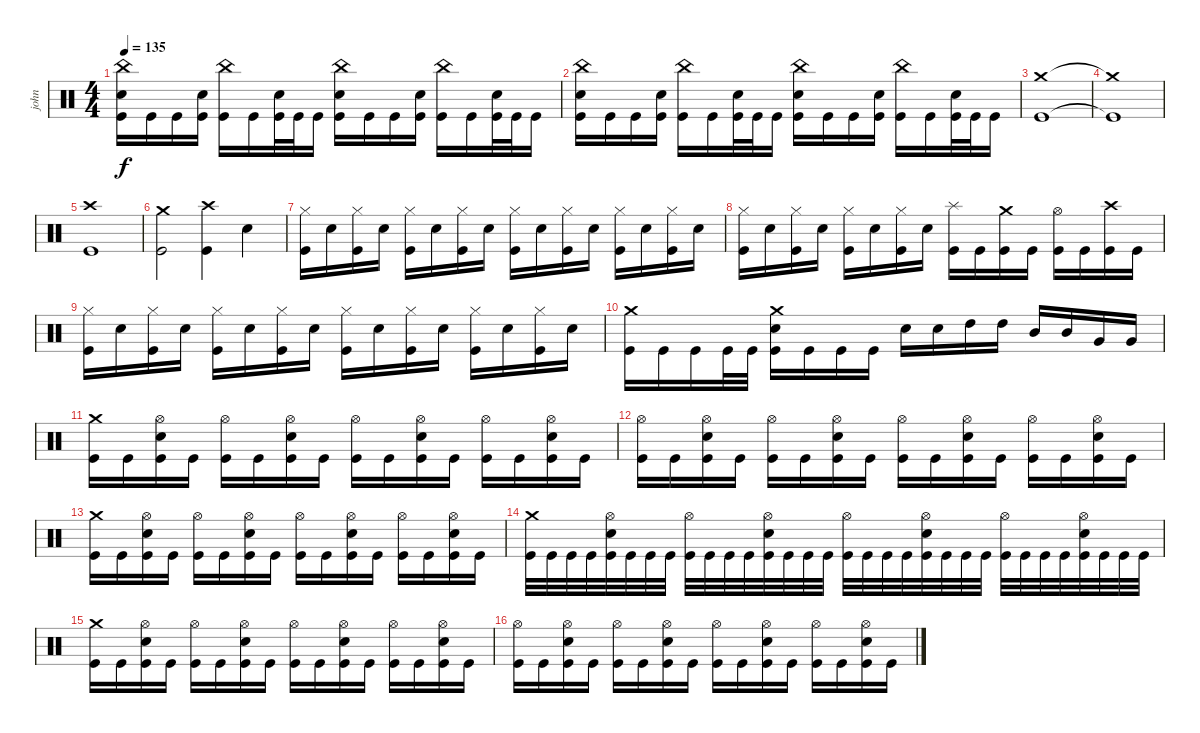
\track ("john" "john") {instrument percussion}
\staff {score}
\articulation defaults
\ts (4 4)
\tempo 135
\clef neutral
\ks c
("Kick (hit)" "Snare (hit) 2" "China (hit)").16{dy f} "Kick (hit)".16 "Kick (hit)".16 ("Kick (hit)" "Snare (hit) 2").16 ("Kick (hit)" "China (hit)").16 "Kick (hit)".16 ("Kick (hit)" "Snare (hit) 2").32 "Kick (hit)".32 "Kick (hit)".16 ("Kick (hit)" "Snare (hit) 2" "China (hit)").16 "Kick (hit)".16 "Kick (hit)".16 ("Kick (hit)" "Snare (hit) 2").16 ("Kick (hit)" "China (hit)").16 "Kick (hit)".16 ("Kick (hit)" "Snare (hit) 2").32 "Kick (hit)".32 "Kick (hit)".16 |
("Kick (hit)" "Snare (hit) 2" "China (hit)").16 "Kick (hit)".16 "Kick (hit)".16 ("Kick (hit)" "Snare (hit) 2").16 ("Kick (hit)" "China (hit)").16 "Kick (hit)".16 ("Kick (hit)" "Snare (hit) 2").32 "Kick (hit)".32 "Kick (hit)".16 ("Kick (hit)" "Snare (hit) 2" "China (hit)").16 "Kick (hit)".16 "Kick (hit)".16 ("Kick (hit)" "Snare (hit) 2").16 ("Kick (hit)" "China (hit)").16 "Kick (hit)".16 ("Kick (hit)" "Snare (hit) 2").32 "Kick (hit)".32 "Kick (hit)".16 |
("Kick (hit)" "Crash medium (hit)").1 |
("Kick (hit)"{t} "Crash medium (hit)"{t}).1 |
("Kick (hit)" "Crash high (hit)").1 |
("Kick (hit)" "Crash medium (hit)").2 ("Kick (hit)" "Crash high (hit)").4 "Snare (hit) 2".4 |
("Kick (hit)" "Hi-Hat (closed)").16 "Snare (hit) 2".16 ("Kick (hit)" "Hi-Hat (closed)").16 "Snare (hit) 2".16 ("Kick (hit)" "Hi-Hat (closed)").16 "Snare (hit) 2".16 ("Kick (hit)" "Hi-Hat (closed)").16 "Snare (hit) 2".16 ("Kick (hit)" "Hi-Hat (closed)").16 "Snare (hit) 2".16 ("Kick (hit)" "Hi-Hat (closed)").16 "Snare (hit) 2".16 ("Kick (hit)" "Hi-Hat (closed)").16 "Snare (hit) 2".16 ("Kick (hit)" "Hi-Hat (closed)").16 "Snare (hit) 2".16 |
("Kick (hit)" "Hi-Hat (closed)").16 "Snare (hit) 2".16 ("Kick (hit)" "Hi-Hat (closed)").16 "Snare (hit) 2".16 ("Kick (hit)" "Hi-Hat (closed)").16 "Snare (hit) 2".16 ("Kick (hit)" "Hi-Hat (closed)").16 "Snare (hit) 2".16 ("Kick (hit)" "Splash (hit)").16 "Kick (hit)".16 ("Kick (hit)" "Crash medium (hit)").16 "Kick (hit)".16 ("Kick (hit)" "Hi-Hat (open)").16 "Kick (hit)".16 ("Kick (hit)" "Crash high (hit)").16 "Kick (hit)".16 |
("Kick (hit)" "Hi-Hat (closed)").16 "Snare (hit) 2".16 ("Kick (hit)" "Hi-Hat (closed)").16 "Snare (hit) 2".16 ("Kick (hit)" "Hi-Hat (closed)").16 "Snare (hit) 2".16 ("Kick (hit)" "Hi-Hat (closed)").16 "Snare (hit) 2".16 ("Kick (hit)" "Hi-Hat (closed)").16 "Snare (hit) 2".16 ("Kick (hit)" "Hi-Hat (closed)").16 "Snare (hit) 2".16 ("Kick (hit)" "Hi-Hat (closed)").16 "Snare (hit) 2".16 ("Kick (hit)" "Hi-Hat (closed)").16 "Snare (hit) 2".16 |
("Kick (hit)" "Crash medium (hit)").16 "Kick (hit)".16 "Kick (hit)".16 "Kick (hit)".32 "Kick (hit)".32 ("Kick (hit)" "Snare (hit) 2" "Crash medium (hit)").16 "Kick (hit)".16 "Kick (hit)".16 "Kick (hit)".16 "Snare (hit) 2".16 "Snare (hit) 2".16 "High Tom (hit)".16 "High Tom (hit)".16 "Mid Tom (hit)".16 "Mid Tom (hit)".16 "Very Low Tom (hit)".16 "Very Low Tom (hit)".16 |
("Kick (hit)" "Crash medium (hit)").16 "Kick (hit)".16 ("Kick (hit)" "Hi-Hat (open)" "Snare (hit) 2").16 "Kick (hit)".16 ("Kick (hit)" "Hi-Hat (open)").16 "Kick (hit)".16 ("Kick (hit)" "Hi-Hat (open)" "Snare (hit) 2").16 "Kick (hit)".16 ("Kick (hit)" "Hi-Hat (open)").16 "Kick (hit)".16 ("Kick (hit)" "Snare (hit) 2" "Hi-Hat (open)").16 "Kick (hit)".16 ("Kick (hit)" "Hi-Hat (open)").16 "Kick (hit)".16 ("Kick (hit)" "Snare (hit) 2" "Hi-Hat (open)").16 "Kick (hit)".16 |
("Kick (hit)" "Hi-Hat (open)").16 "Kick (hit)".16 ("Kick (hit)" "Hi-Hat (open)" "Snare (hit) 2").16 "Kick (hit)".16 ("Kick (hit)" "Hi-Hat (open)").16 "Kick (hit)".16 ("Kick (hit)" "Hi-Hat (open)" "Snare (hit) 2").16 "Kick (hit)".16 ("Kick (hit)" "Hi-Hat (open)").16 "Kick (hit)".16 ("Kick (hit)" "Snare (hit) 2" "Hi-Hat (open)").16 "Kick (hit)".16 ("Kick (hit)" "Hi-Hat (open)").16 "Kick (hit)".16 ("Kick (hit)" "Snare (hit) 2" "Hi-Hat (open)").16 "Kick (hit)".16 |
("Kick (hit)" "Crash medium (hit)").16 "Kick (hit)".16 ("Kick (hit)" "Hi-Hat (open)" "Snare (hit) 2").16 "Kick (hit)".16 ("Kick (hit)" "Hi-Hat (open)").16 "Kick (hit)".16 ("Kick (hit)" "Hi-Hat (open)" "Snare (hit) 2").16 "Kick (hit)".16 ("Kick (hit)" "Hi-Hat (open)").16 "Kick (hit)".16 ("Kick (hit)" "Snare (hit) 2" "Hi-Hat (open)").16 "Kick (hit)".16 ("Kick (hit)" "Hi-Hat (open)").16 "Kick (hit)".16 ("Kick (hit)" "Snare (hit) 2" "Hi-Hat (open)").16 "Kick (hit)".16 |
("Kick (hit)" "Crash medium (hit)").32 "Kick (hit)".32 "Kick (hit)".32 "Kick (hit)".32 ("Kick (hit)" "Snare (hit) 2" "Hi-Hat (open)").32 "Kick (hit)".32 "Kick (hit)".32 "Kick (hit)".32 ("Kick (hit)" "Hi-Hat (open)").32 "Kick (hit)".32 "Kick (hit)".32 "Kick (hit)".32 ("Kick (hit)" "Hi-Hat (open)" "Snare (hit) 2").32 "Kick (hit)".32 "Kick (hit)".32 "Kick (hit)".32 ("Kick (hit)" "Hi-Hat (open)").32 "Kick (hit)".32 "Kick (hit)".32 "Kick (hit)".32 ("Kick (hit)" "Hi-Hat (open)" "Snare (hit) 2").32 "Kick (hit)".32 "Kick (hit)".32 "Kick (hit)".32 ("Kick (hit)" "Hi-Hat (open)").32 "Kick (hit)".32 "Kick (hit)".32 "Kick (hit)".32 ("Kick (hit)" "Hi-Hat (open)" "Snare (hit) 2").32 "Kick (hit)".32 "Kick (hit)".32 "Kick (hit)".32 |
("Kick (hit)" "Crash medium (hit)").16 "Kick (hit)".16 ("Kick (hit)" "Hi-Hat (open)" "Snare (hit) 2").16 "Kick (hit)".16 ("Kick (hit)" "Hi-Hat (open)").16 "Kick (hit)".16 ("Kick (hit)" "Hi-Hat (open)" "Snare (hit) 2").16 "Kick (hit)".16 ("Kick (hit)" "Hi-Hat (open)").16 "Kick (hit)".16 ("Kick (hit)" "Snare (hit) 2" "Hi-Hat (open)").16 "Kick (hit)".16 ("Kick (hit)" "Hi-Hat (open)").16 "Kick (hit)".16 ("Kick (hit)" "Snare (hit) 2" "Hi-Hat (open)").16 "Kick (hit)".16 |
("Kick (hit)" "Hi-Hat (open)").16 "Kick (hit)".16 ("Kick (hit)" "Hi-Hat (open)" "Snare (hit) 2").16 "Kick (hit)".16 ("Kick (hit)" "Hi-Hat (open)").16 "Kick (hit)".16 ("Kick (hit)" "Hi-Hat (open)" "Snare (hit) 2").16 "Kick (hit)".16 ("Kick (hit)" "Hi-Hat (open)").16 "Kick (hit)".16 ("Kick (hit)" "Snare (hit) 2" "Hi-Hat (open)").16 "Kick (hit)".16 ("Kick (hit)" "Hi-Hat (open)").16 "Kick (hit)".16 ("Kick (hit)" "Snare (hit) 2" "Hi-Hat (open)").16 "Kick (hit)".16
